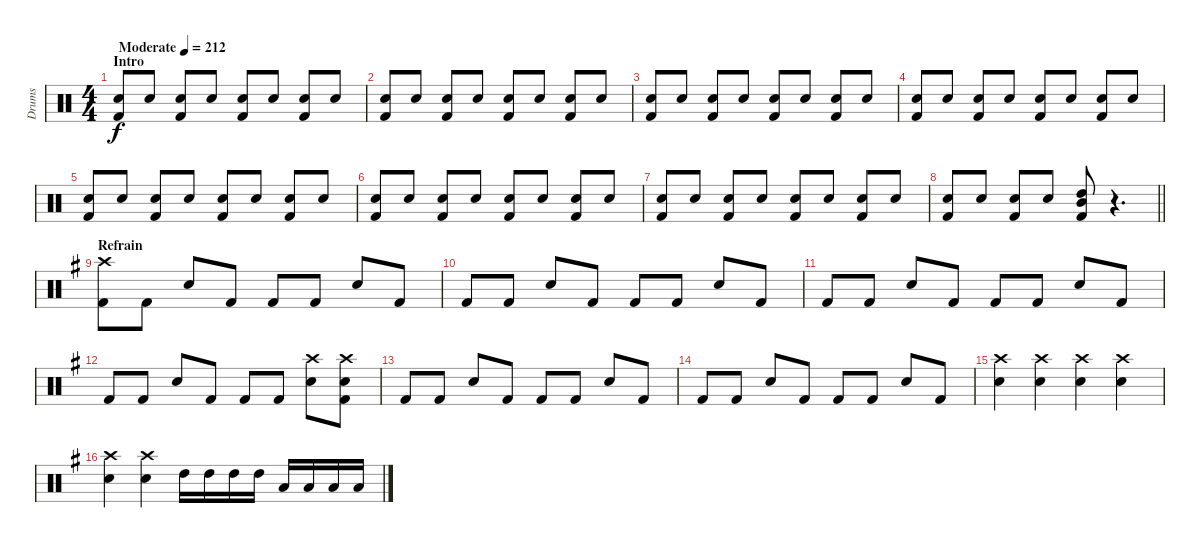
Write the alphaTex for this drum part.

\track ("Drums" "Drums") {instrument percussion}
\staff {score}
\articulation defaults
\ts (4 4)
\section ("" "Intro")
\tempo (212 "Moderate")
\clef neutral
\ks c
("Snare (hit) 2" "Kick (hit) 2").8{dy f volume 4} "Snare (hit) 2".8{volume 8} ("Snare (hit) 2" "Kick (hit) 2").8 "Snare (hit) 2".8 ("Snare (hit) 2" "Kick (hit) 2").8 "Snare (hit) 2".8 ("Snare (hit) 2" "Kick (hit) 2").8 "Snare (hit) 2".8 |
("Snare (hit) 2" "Kick (hit) 2").8 "Snare (hit) 2".8 ("Snare (hit) 2" "Kick (hit) 2").8 "Snare (hit) 2".8 ("Snare (hit) 2" "Kick (hit) 2").8 "Snare (hit) 2".8 ("Snare (hit) 2" "Kick (hit) 2").8 "Snare (hit) 2".8 |
("Snare (hit) 2" "Kick (hit) 2").8 "Snare (hit) 2".8 ("Snare (hit) 2" "Kick (hit) 2").8 "Snare (hit) 2".8 ("Snare (hit) 2" "Kick (hit) 2").8 "Snare (hit) 2".8 ("Snare (hit) 2" "Kick (hit) 2").8 "Snare (hit) 2".8 |
("Snare (hit) 2" "Kick (hit) 2").8 "Snare (hit) 2".8 ("Snare (hit) 2" "Kick (hit) 2").8 "Snare (hit) 2".8 ("Snare (hit) 2" "Kick (hit) 2").8 "Snare (hit) 2".8 ("Snare (hit) 2" "Kick (hit) 2").8 "Snare (hit) 2".8 |
("Snare (hit) 2" "Kick (hit) 2").8{volume 12} "Snare (hit) 2".8 ("Snare (hit) 2" "Kick (hit) 2").8 "Snare (hit) 2".8 ("Snare (hit) 2" "Kick (hit) 2").8 "Snare (hit) 2".8 ("Snare (hit) 2" "Kick (hit) 2").8 "Snare (hit) 2".8 |
("Snare (hit) 2" "Kick (hit) 2").8 "Snare (hit) 2".8 ("Snare (hit) 2" "Kick (hit) 2").8 "Snare (hit) 2".8 ("Snare (hit) 2" "Kick (hit) 2").8 "Snare (hit) 2".8 ("Snare (hit) 2" "Kick (hit) 2").8 "Snare (hit) 2".8 |
("Snare (hit) 2" "Kick (hit) 2").8 "Snare (hit) 2".8 ("Snare (hit) 2" "Kick (hit) 2").8 "Snare (hit) 2".8 ("Snare (hit) 2" "Kick (hit) 2").8 "Snare (hit) 2".8 ("Snare (hit) 2" "Kick (hit) 2").8 "Snare (hit) 2".8 |
\barLineRight lightlight
("Snare (hit) 2" "Kick (hit) 2").8 "Snare (hit) 2".8 ("Snare (hit) 2" "Kick (hit) 2").8 "Snare (hit) 2".8 ("High Tom (hit)" "Mid Tom (hit)" "Kick (hit) 2").8 r.4{d} |
\section ("" "Refrain")
\ks eminor
("Crash high (hit)" "Kick (hit) 2").8 "Kick (hit) 2".8 "Snare (hit) 2".8 "Kick (hit) 2".8 "Kick (hit) 2".8 "Kick (hit) 2".8 "Snare (hit) 2".8 "Kick (hit) 2".8 |
"Kick (hit) 2".8 "Kick (hit) 2".8 "Snare (hit) 2".8 "Kick (hit) 2".8 "Kick (hit) 2".8 "Kick (hit) 2".8 "Snare (hit) 2".8 "Kick (hit) 2".8 |
"Kick (hit) 2".8 "Kick (hit) 2".8 "Snare (hit) 2".8 "Kick (hit) 2".8 "Kick (hit) 2".8 "Kick (hit) 2".8 "Snare (hit) 2".8 "Kick (hit) 2".8 |
"Kick (hit) 2".8 "Kick (hit) 2".8 "Snare (hit) 2".8 "Kick (hit) 2".8 "Kick (hit) 2".8 "Kick (hit) 2".8 ("Crash high (hit)" "Snare (hit) 2").8 ("Crash high (hit)" "Snare (hit) 2" "Kick (hit) 2").8 |
"Kick (hit) 2".8 "Kick (hit) 2".8 "Snare (hit) 2".8 "Kick (hit) 2".8 "Kick (hit) 2".8 "Kick (hit) 2".8 "Snare (hit) 2".8 "Kick (hit) 2".8 |
"Kick (hit) 2".8 "Kick (hit) 2".8 "Snare (hit) 2".8 "Kick (hit) 2".8 "Kick (hit) 2".8 "Kick (hit) 2".8 "Snare (hit) 2".8 "Kick (hit) 2".8 |
("Crash high (hit)" "Snare (hit) 2").4 ("Crash high (hit)" "Snare (hit) 2").4 ("Crash high (hit)" "Snare (hit) 2").4 ("Crash high (hit)" "Snare (hit) 2").4 |
("Crash high (hit)" "Snare (hit) 2").4 ("Crash high (hit)" "Snare (hit) 2").4 "High Tom (hit)".16 "High Tom (hit)".16 "High Tom (hit)".16 "High Tom (hit)".16 "Low Tom (hit)".16 "Low Tom (hit)".16 "Low Tom (hit)".16 "Low Tom (hit)".16
